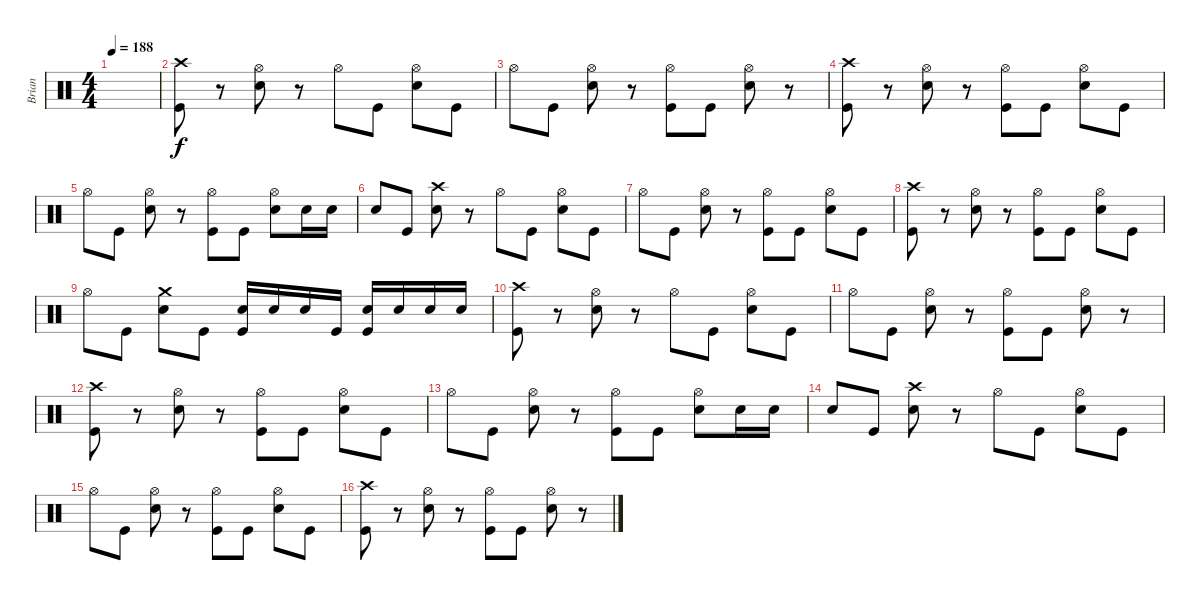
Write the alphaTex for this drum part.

\track ("Brian" "Brian") {instrument percussion}
\staff {score}
\articulation defaults
\ts (4 4)
\tempo 188
\clef neutral
\ks c
|
("Crash high (hit)" "Kick (hit)").8 r.8 ("Hi-Hat (open)" "Snare (hit) 2").8 r.8 "Hi-Hat (open)".8 "Kick (hit)".8 ("Hi-Hat (open)" "Snare (hit) 2").8 "Kick (hit)".8 |
"Hi-Hat (open)".8 "Kick (hit)".8 ("Hi-Hat (open)" "Snare (hit) 2").8 r.8 ("Hi-Hat (open)" "Kick (hit)").8 "Kick (hit)".8 ("Hi-Hat (open)" "Snare (hit) 2").8 r.8 |
("Crash high (hit)" "Kick (hit)").8 r.8 ("Hi-Hat (open)" "Snare (hit) 2").8 r.8 ("Hi-Hat (open)" "Kick (hit)").8 "Kick (hit)".8 ("Hi-Hat (open)" "Snare (hit) 2").8 "Kick (hit)".8 |
"Hi-Hat (open)".8 "Kick (hit)".8 ("Hi-Hat (open)" "Snare (hit) 2").8 r.8 ("Hi-Hat (open)" "Kick (hit)").8 "Kick (hit)".8 ("Hi-Hat (open)" "Snare (hit) 2").8 "Snare (hit) 2".16 "Snare (hit) 2".16 |
"Snare (hit) 2".8 "Kick (hit)".8 ("Crash high (hit)" "Snare (hit) 2").8 r.8 "Hi-Hat (open)".8 "Kick (hit)".8 ("Hi-Hat (open)" "Snare (hit) 2").8 "Kick (hit)".8 |
"Hi-Hat (open)".8 "Kick (hit)".8 ("Hi-Hat (open)" "Snare (hit) 2").8 r.8 ("Hi-Hat (open)" "Kick (hit)").8 "Kick (hit)".8 ("Hi-Hat (open)" "Snare (hit) 2").8 "Kick (hit)".8 |
("Crash high (hit)" "Kick (hit)").8 r.8 ("Hi-Hat (open)" "Snare (hit) 2").8 r.8 ("Hi-Hat (open)" "Kick (hit)").8 "Kick (hit)".8 ("Hi-Hat (open)" "Snare (hit) 2").8 "Kick (hit)".8 |
"Hi-Hat (open)".8 "Kick (hit)".8 ("Crash medium (hit)" "Snare (hit) 2").8 "Kick (hit)".8 ("Snare (hit) 2" "Kick (hit)").16 "Snare (hit) 2".16 "Snare (hit) 2".16 "Kick (hit)".16 ("Snare (hit) 2" "Kick (hit)").16 "Snare (hit) 2".16 "Snare (hit) 2".16 "Snare (hit) 2".16 |
("Crash high (hit)" "Kick (hit)").8 r.8 ("Hi-Hat (open)" "Snare (hit) 2").8 r.8 "Hi-Hat (open)".8 "Kick (hit)".8 ("Hi-Hat (open)" "Snare (hit) 2").8 "Kick (hit)".8 |
"Hi-Hat (open)".8 "Kick (hit)".8 ("Hi-Hat (open)" "Snare (hit) 2").8 r.8 ("Hi-Hat (open)" "Kick (hit)").8 "Kick (hit)".8 ("Hi-Hat (open)" "Snare (hit) 2").8 r.8 |
("Crash high (hit)" "Kick (hit)").8 r.8 ("Hi-Hat (open)" "Snare (hit) 2").8 r.8 ("Hi-Hat (open)" "Kick (hit)").8 "Kick (hit)".8 ("Hi-Hat (open)" "Snare (hit) 2").8 "Kick (hit)".8 |
"Hi-Hat (open)".8 "Kick (hit)".8 ("Hi-Hat (open)" "Snare (hit) 2").8 r.8 ("Hi-Hat (open)" "Kick (hit)").8 "Kick (hit)".8 ("Hi-Hat (open)" "Snare (hit) 2").8 "Snare (hit) 2".16 "Snare (hit) 2".16 |
"Snare (hit) 2".8 "Kick (hit)".8 ("Crash high (hit)" "Snare (hit) 2").8 r.8 "Hi-Hat (open)".8 "Kick (hit)".8 ("Hi-Hat (open)" "Snare (hit) 2").8 "Kick (hit)".8 |
"Hi-Hat (open)".8 "Kick (hit)".8 ("Hi-Hat (open)" "Snare (hit) 2").8 r.8 ("Hi-Hat (open)" "Kick (hit)").8 "Kick (hit)".8 ("Hi-Hat (open)" "Snare (hit) 2").8 "Kick (hit)".8 |
("Crash high (hit)" "Kick (hit)").8 r.8 ("Hi-Hat (open)" "Snare (hit) 2").8 r.8 ("Hi-Hat (open)" "Kick (hit)").8 "Kick (hit)".8 ("Hi-Hat (open)" "Snare (hit) 2").8 r.8
